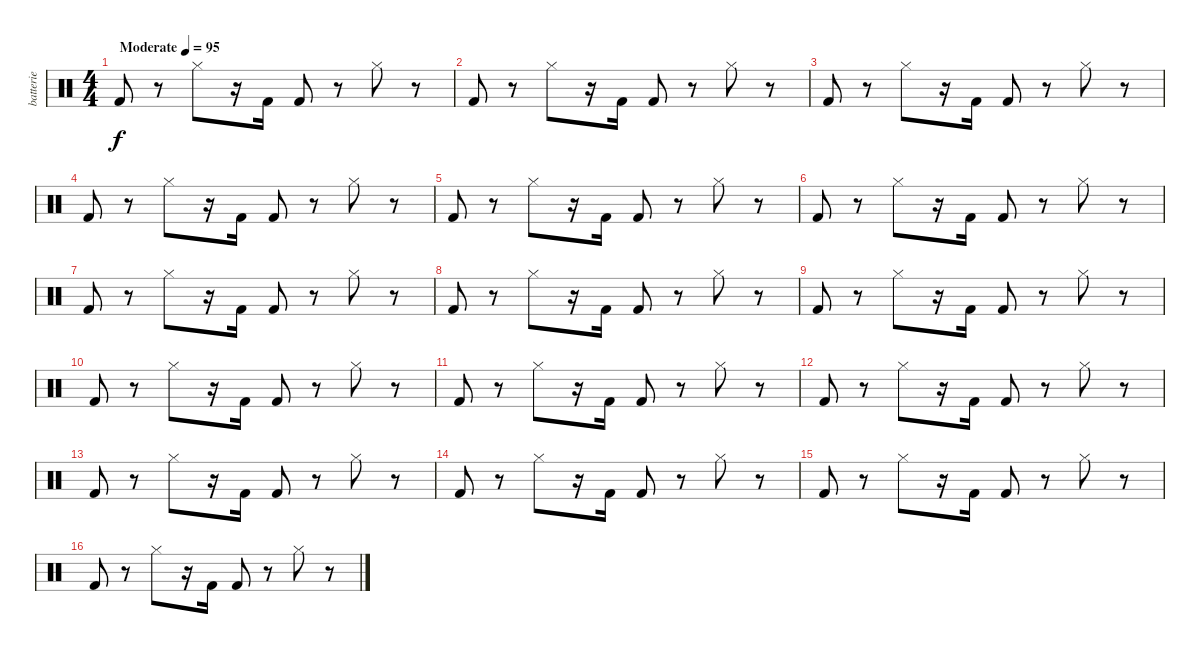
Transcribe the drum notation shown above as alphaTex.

\track ("batterie" "batterie") {instrument percussion}
\staff {score}
\articulation defaults
\ts (4 4)
\tempo (95 "Moderate")
\clef neutral
\ks c "Kick (hit) 2".8{dy f}
r.8 "Hi-Hat (closed)".8 r.16 "Kick (hit) 2".16 "Kick (hit) 2".8 r.8 "Hi-Hat (closed)".8 r.8 |
"Kick (hit) 2".8 r.8 "Hi-Hat (closed)".8 r.16 "Kick (hit) 2".16 "Kick (hit) 2".8 r.8 "Hi-Hat (closed)".8 r.8 |
"Kick (hit) 2".8 r.8 "Hi-Hat (closed)".8 r.16 "Kick (hit) 2".16 "Kick (hit) 2".8 r.8 "Hi-Hat (closed)".8 r.8 |
"Kick (hit) 2".8 r.8 "Hi-Hat (closed)".8 r.16 "Kick (hit) 2".16 "Kick (hit) 2".8 r.8 "Hi-Hat (closed)".8 r.8 |
"Kick (hit) 2".8 r.8 "Hi-Hat (closed)".8 r.16 "Kick (hit) 2".16 "Kick (hit) 2".8 r.8 "Hi-Hat (closed)".8 r.8 |
"Kick (hit) 2".8 r.8 "Hi-Hat (closed)".8 r.16 "Kick (hit) 2".16 "Kick (hit) 2".8 r.8 "Hi-Hat (closed)".8 r.8 |
"Kick (hit) 2".8 r.8 "Hi-Hat (closed)".8 r.16 "Kick (hit) 2".16 "Kick (hit) 2".8 r.8 "Hi-Hat (closed)".8 r.8 |
"Kick (hit) 2".8 r.8 "Hi-Hat (closed)".8 r.16 "Kick (hit) 2".16 "Kick (hit) 2".8 r.8 "Hi-Hat (closed)".8 r.8 |
"Kick (hit) 2".8 r.8 "Hi-Hat (closed)".8 r.16 "Kick (hit) 2".16 "Kick (hit) 2".8 r.8 "Hi-Hat (closed)".8 r.8 |
"Kick (hit) 2".8 r.8 "Hi-Hat (closed)".8 r.16 "Kick (hit) 2".16 "Kick (hit) 2".8 r.8 "Hi-Hat (closed)".8 r.8 |
"Kick (hit) 2".8 r.8 "Hi-Hat (closed)".8 r.16 "Kick (hit) 2".16 "Kick (hit) 2".8 r.8 "Hi-Hat (closed)".8 r.8 |
"Kick (hit) 2".8 r.8 "Hi-Hat (closed)".8 r.16 "Kick (hit) 2".16 "Kick (hit) 2".8 r.8 "Hi-Hat (closed)".8 r.8 |
"Kick (hit) 2".8 r.8 "Hi-Hat (closed)".8 r.16 "Kick (hit) 2".16 "Kick (hit) 2".8 r.8 "Hi-Hat (closed)".8 r.8 |
"Kick (hit) 2".8 r.8 "Hi-Hat (closed)".8 r.16 "Kick (hit) 2".16 "Kick (hit) 2".8 r.8 "Hi-Hat (closed)".8 r.8 |
"Kick (hit) 2".8 r.8 "Hi-Hat (closed)".8 r.16 "Kick (hit) 2".16 "Kick (hit) 2".8 r.8 "Hi-Hat (closed)".8 r.8 |
"Kick (hit) 2".8 r.8 "Hi-Hat (closed)".8 r.16 "Kick (hit) 2".16 "Kick (hit) 2".8 r.8 "Hi-Hat (closed)".8 r.8
